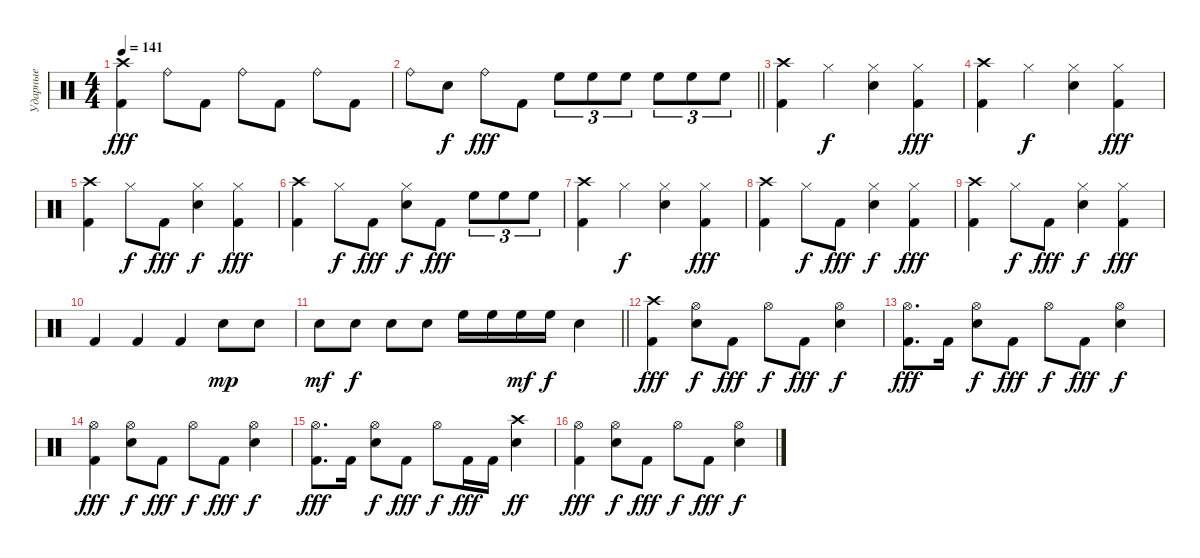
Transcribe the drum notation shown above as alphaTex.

\track ("Ударные" "Ударные") {instrument percussion}
\staff {score}
\articulation defaults
\ts (4 4)
\tempo 141
\clef neutral
\ks c
("Kick (hit) 2" "Crash high (hit)").4{dy fff} "Ride (bell)".8 "Kick (hit) 2".8 "Ride (bell)".8 "Kick (hit) 2".8 "Ride (bell)".8 "Kick (hit) 2".8 |
\barLineRight lightlight "Ride (bell)".8 "Snare (hit) 2".8{dy f} "Ride (bell)".8{dy fff} "Kick (hit) 2".8 "High Floor Tom (hit)".8{tu (3 2)} "High Floor Tom (hit)".8{tu (3 2)} "High Floor Tom (hit)".8{tu (3 2)} "High Floor Tom (hit)".8{tu (3 2)} "High Floor Tom (hit)".8{tu (3 2)} "High Floor Tom (hit)".8{tu (3 2)}
|
("Kick (hit) 2" "Crash high (hit)").4 "Hi-Hat (closed)".4{dy f} ("Snare (hit) 2" "Hi-Hat (closed)").4 ("Kick (hit) 2" "Hi-Hat (closed)").4{dy fff} |
("Kick (hit) 2" "Crash high (hit)").4 "Hi-Hat (closed)".4{dy f} ("Snare (hit) 2" "Hi-Hat (closed)").4 ("Kick (hit) 2" "Hi-Hat (closed)").4{dy fff} |
("Kick (hit) 2" "Crash high (hit)").4 "Hi-Hat (closed)".8{dy f} "Kick (hit) 2".8{dy fff} ("Snare (hit) 2" "Hi-Hat (closed)").4{dy f} ("Kick (hit) 2" "Hi-Hat (closed)").4{dy fff} |
("Kick (hit) 2" "Crash high (hit)").4 "Hi-Hat (closed)".8{dy f} "Kick (hit) 2".8{dy fff} ("Snare (hit) 2" "Hi-Hat (closed)").8{dy f} "Kick (hit) 2".8{dy fff} "High Floor Tom (hit)".8{tu (3 2)} "High Floor Tom (hit)".8{tu (3 2)} "High Floor Tom (hit)".8{tu (3 2)} |
("Kick (hit) 2" "Crash high (hit)").4 "Hi-Hat (closed)".4{dy f} ("Snare (hit) 2" "Hi-Hat (closed)").4 ("Kick (hit) 2" "Hi-Hat (closed)").4{dy fff} |
("Kick (hit) 2" "Crash high (hit)").4 "Hi-Hat (closed)".8{dy f} "Kick (hit) 2".8{dy fff} ("Snare (hit) 2" "Hi-Hat (closed)").4{dy f} ("Kick (hit) 2" "Hi-Hat (closed)").4{dy fff} |
("Kick (hit) 2" "Crash high (hit)").4 "Hi-Hat (closed)".8{dy f} "Kick (hit) 2".8{dy fff} ("Snare (hit) 2" "Hi-Hat (closed)").4{dy f} ("Kick (hit) 2" "Hi-Hat (closed)").4{dy fff} |
"Kick (hit) 2".4 "Kick (hit) 2".4 "Kick (hit) 2".4 "Snare (hit) 2".8{dy mp} "Snare (hit) 2".8 |
\barLineRight lightlight "Snare (hit) 2".8{dy mf} "Snare (hit) 2".8{dy f} "Snare (hit) 2".8 "Snare (hit) 2".8 "High Floor Tom (hit)".16 "High Floor Tom (hit)".16 "High Floor Tom (hit)".16{dy mf} "High Floor Tom (hit)".16{dy f} "Snare (hit) 2".4
|
("Kick (hit) 2" "Crash high (hit)").4{dy fff} ("Snare (hit) 2" "Hi-Hat (open)").8{dy f} "Kick (hit) 2".8{dy fff} "Hi-Hat (open)".8{dy f} "Kick (hit) 2".8{dy fff} ("Snare (hit) 2" "Hi-Hat (open)").4{dy f} |
("Kick (hit) 2" "Hi-Hat (open)").8{d dy fff} "Kick (hit) 2".16 ("Snare (hit) 2" "Hi-Hat (open)").8{dy f} "Kick (hit) 2".8{dy fff} "Hi-Hat (open)".8{dy f} "Kick (hit) 2".8{dy fff} ("Snare (hit) 2" "Hi-Hat (open)").4{dy f} |
("Kick (hit) 2" "Hi-Hat (open)").4{dy fff} ("Snare (hit) 2" "Hi-Hat (open)").8{dy f} "Kick (hit) 2".8{dy fff} "Hi-Hat (open)".8{dy f} "Kick (hit) 2".8{dy fff} ("Snare (hit) 2" "Hi-Hat (open)").4{dy f} |
("Kick (hit) 2" "Hi-Hat (open)").8{d dy fff} "Kick (hit) 2".16 ("Snare (hit) 2" "Hi-Hat (open)").8{dy f} "Kick (hit) 2".8{dy fff} "Hi-Hat (open)".8{dy f} "Kick (hit) 2".16{dy fff} "Kick (hit) 2".16 ("Snare (hit) 2" "Crash high (hit)").4{dy ff} |
("Kick (hit) 2" "Hi-Hat (open)").4{dy fff} ("Snare (hit) 2" "Hi-Hat (open)").8{dy f} "Kick (hit) 2".8{dy fff} "Hi-Hat (open)".8{dy f} "Kick (hit) 2".8{dy fff} ("Snare (hit) 2" "Hi-Hat (open)").4{dy f}
